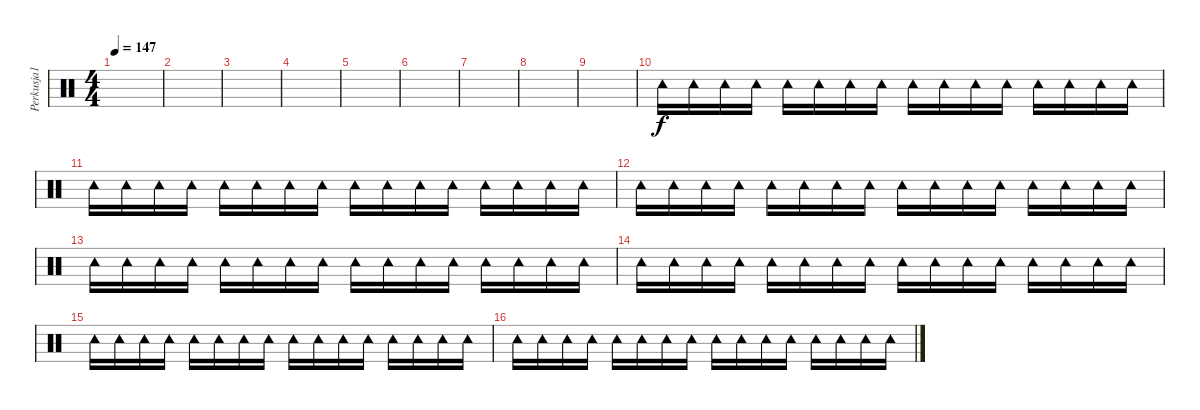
\track ("Perkusja1" "Perkusja1") {instrument percussion}
\staff {score}
\articulation defaults
\ts (4 4)
\tempo 147
\clef neutral
\ks c
|
|
|
|
|
|
|
|
|
"Tambourine (hit)".16 "Tambourine (hit)".16 "Tambourine (hit)".16 "Tambourine (hit)".16 "Tambourine (hit)".16 "Tambourine (hit)".16 "Tambourine (hit)".16 "Tambourine (hit)".16 "Tambourine (hit)".16 "Tambourine (hit)".16 "Tambourine (hit)".16 "Tambourine (hit)".16 "Tambourine (hit)".16 "Tambourine (hit)".16 "Tambourine (hit)".16 "Tambourine (hit)".16 |
"Tambourine (hit)".16 "Tambourine (hit)".16 "Tambourine (hit)".16 "Tambourine (hit)".16 "Tambourine (hit)".16 "Tambourine (hit)".16 "Tambourine (hit)".16 "Tambourine (hit)".16 "Tambourine (hit)".16 "Tambourine (hit)".16 "Tambourine (hit)".16 "Tambourine (hit)".16 "Tambourine (hit)".16 "Tambourine (hit)".16 "Tambourine (hit)".16 "Tambourine (hit)".16 |
"Tambourine (hit)".16 "Tambourine (hit)".16 "Tambourine (hit)".16 "Tambourine (hit)".16 "Tambourine (hit)".16 "Tambourine (hit)".16 "Tambourine (hit)".16 "Tambourine (hit)".16 "Tambourine (hit)".16 "Tambourine (hit)".16 "Tambourine (hit)".16 "Tambourine (hit)".16 "Tambourine (hit)".16 "Tambourine (hit)".16 "Tambourine (hit)".16 "Tambourine (hit)".16 |
"Tambourine (hit)".16 "Tambourine (hit)".16 "Tambourine (hit)".16 "Tambourine (hit)".16 "Tambourine (hit)".16 "Tambourine (hit)".16 "Tambourine (hit)".16 "Tambourine (hit)".16 "Tambourine (hit)".16 "Tambourine (hit)".16 "Tambourine (hit)".16 "Tambourine (hit)".16 "Tambourine (hit)".16 "Tambourine (hit)".16 "Tambourine (hit)".16 "Tambourine (hit)".16 |
"Tambourine (hit)".16 "Tambourine (hit)".16 "Tambourine (hit)".16 "Tambourine (hit)".16 "Tambourine (hit)".16 "Tambourine (hit)".16 "Tambourine (hit)".16 "Tambourine (hit)".16 "Tambourine (hit)".16 "Tambourine (hit)".16 "Tambourine (hit)".16 "Tambourine (hit)".16 "Tambourine (hit)".16 "Tambourine (hit)".16 "Tambourine (hit)".16 "Tambourine (hit)".16 |
"Tambourine (hit)".16 "Tambourine (hit)".16 "Tambourine (hit)".16 "Tambourine (hit)".16 "Tambourine (hit)".16 "Tambourine (hit)".16 "Tambourine (hit)".16 "Tambourine (hit)".16 "Tambourine (hit)".16 "Tambourine (hit)".16 "Tambourine (hit)".16 "Tambourine (hit)".16 "Tambourine (hit)".16 "Tambourine (hit)".16 "Tambourine (hit)".16 "Tambourine (hit)".16 |
"Tambourine (hit)".16 "Tambourine (hit)".16 "Tambourine (hit)".16 "Tambourine (hit)".16 "Tambourine (hit)".16 "Tambourine (hit)".16 "Tambourine (hit)".16 "Tambourine (hit)".16 "Tambourine (hit)".16 "Tambourine (hit)".16 "Tambourine (hit)".16 "Tambourine (hit)".16 "Tambourine (hit)".16 "Tambourine (hit)".16 "Tambourine (hit)".16 "Tambourine (hit)".16
